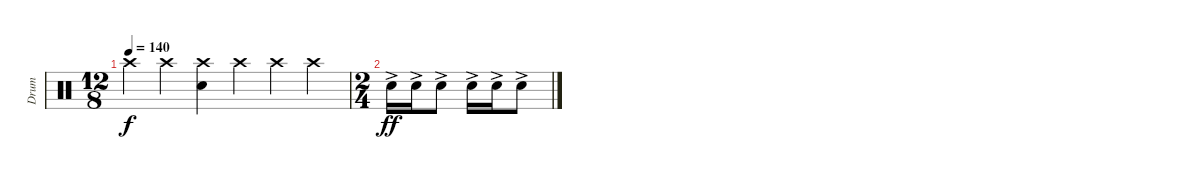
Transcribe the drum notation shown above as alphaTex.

\track ("Drum" "Drum") {instrument percussion}
\staff {score}
\articulation defaults
\ts (12 8)
\tempo 140
\clef neutral
\ks c "Crash high (hit)".4{dy f} "Crash high (hit)".4
("Crash high (hit)" "Snare (hit) 2").4 "Crash high (hit)".4 "Crash high (hit)".4 "Crash high (hit)".4 |
\ts (2 4)
"Snare (hit) 2"{ac}.16{dy ff} "Snare (hit) 2"{ac}.16 "Snare (hit) 2"{ac}.8 "Snare (hit) 2"{ac}.16 "Snare (hit) 2"{ac}.16 "Snare (hit) 2"{ac}.8
